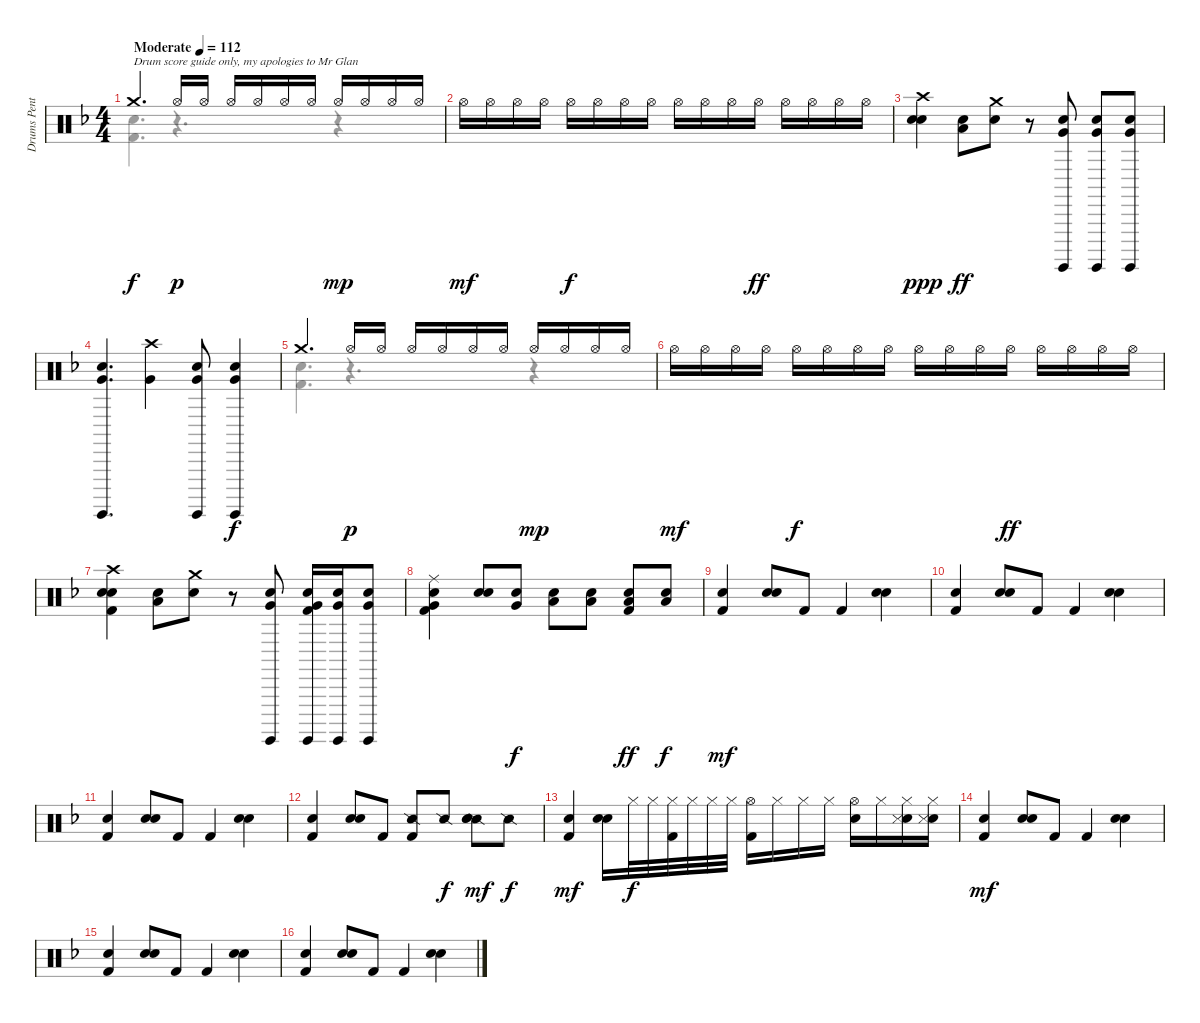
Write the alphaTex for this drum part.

\track ("Drums Pentti Glan" "Drums Pent") {instrument percussion}
\staff {score}
\articulation defaults
\voice
\ts (4 4)
\tempo (112 "Moderate")
\clef neutral
\ks f "Crash medium (hit)".4{d txt "Drum score guide only, my apologies to Mr Glan" dy f} "Hi-Hat (open)".16{dy p} "Hi-Hat (open)".16 "Hi-Hat (open)".16 "Hi-Hat (open)".16 "Hi-Hat (open)".16 "Hi-Hat (open)".16 "Hi-Hat (open)".16{dy mp} "Hi-Hat (open)".16 "Hi-Hat (open)".16 "Hi-Hat (open)".16
|
"Hi-Hat (open)".16{dy mf} "Hi-Hat (open)".16 "Hi-Hat (open)".16 "Hi-Hat (open)".16 "Hi-Hat (open)".16{dy f} "Hi-Hat (open)".16 "Hi-Hat (open)".16 "Hi-Hat (open)".16 "Hi-Hat (open)".16 "Hi-Hat (open)".16 "Hi-Hat (open)".16 "Hi-Hat (open)".16{dy ff} "Hi-Hat (open)".16 "Hi-Hat (open)".16 "Hi-Hat (open)".16 "Hi-Hat (open)".16 |
("Crash high (hit)" "Hand Clap (hit)" "Electric Snare (hit)").4{dy ppp} ("Low Floor Tom (hit)" "Hand Clap (hit)").8{dy ff} ("Crash medium (hit)" "Electric Snare (hit)").8 r.8 ("Hand Clap (hit)" "Very Low Tom (hit)" "Surdo (hit)").8 ("Hand Clap (hit)" "Very Low Tom (hit)" "Surdo (hit)").8 ("Hand Clap (hit)" "Very Low Tom (hit)" "Surdo (hit)").8 |
("Hand Clap (hit)" "Very Low Tom (hit)" "Surdo (hit)").4{d} ("Crash high (hit)" "Very Low Tom (hit)").4 ("Hand Clap (hit)" "Very Low Tom (hit)" "Surdo (hit)").8 ("Hand Clap (hit)" "Very Low Tom (hit)" "Surdo (hit)").4{dy f} |
"Crash medium (hit)".4{d} "Hi-Hat (open)".16{dy p} "Hi-Hat (open)".16 "Hi-Hat (open)".16 "Hi-Hat (open)".16 "Hi-Hat (open)".16 "Hi-Hat (open)".16 "Hi-Hat (open)".16{dy mp} "Hi-Hat (open)".16 "Hi-Hat (open)".16 "Hi-Hat (open)".16 |
"Hi-Hat (open)".16{dy mf} "Hi-Hat (open)".16 "Hi-Hat (open)".16 "Hi-Hat (open)".16 "Hi-Hat (open)".16{dy f} "Hi-Hat (open)".16 "Hi-Hat (open)".16 "Hi-Hat (open)".16 "Hi-Hat (open)".16 "Hi-Hat (open)".16 "Hi-Hat (open)".16 "Hi-Hat (open)".16{dy ff} "Hi-Hat (open)".16 "Hi-Hat (open)".16 "Hi-Hat (open)".16 "Hi-Hat (open)".16 |
("Crash high (hit)" "Hand Clap (hit)" "Electric Snare (hit)" "Kick (hit) 2").4 ("Low Floor Tom (hit)" "Hand Clap (hit)").8 ("Crash medium (hit)" "Electric Snare (hit)").8 r.8 ("Hand Clap (hit)" "Very Low Tom (hit)" "Surdo (hit)").8 ("Hand Clap (hit)" "Very Low Tom (hit)" "Surdo (hit)" "Kick (hit) 2").16 ("Hand Clap (hit)" "Very Low Tom (hit)" "Surdo (hit)").16 ("Hand Clap (hit)" "Very Low Tom (hit)" "Surdo (hit)").8 |
("Ride (middle)" "Hand Clap (hit)" "Very Low Tom (hit)" "Kick (hit) 2").4 ("Hand Clap (hit)" "Electric Snare (hit)").8 ("Hand Clap (hit)" "Very Low Tom (hit)").8{dy f} ("Hand Clap (hit)" "Low Floor Tom (hit)").8 ("Hand Clap (hit)" "Low Floor Tom (hit)").8 ("Hand Clap (hit)" "Low Floor Tom (hit)" "Kick (hit) 2").8{dy ff} ("Hand Clap (hit)" "Low Floor Tom (hit)").8{dy f} |
("Hand Clap (hit)" "Kick (hit) 2").4{dy mf} ("Electric Snare (hit)" "Snare (hit) 2").8 "Kick (hit) 2".8 "Kick (hit) 2".4 ("Electric Snare (hit)" "Snare (hit) 2").4 |
("Hand Clap (hit)" "Kick (hit) 2").4 ("Electric Snare (hit)" "Snare (hit) 2").8 "Kick (hit) 2".8 "Kick (hit) 2".4 ("Electric Snare (hit)" "Snare (hit) 2").4 |
("Hand Clap (hit)" "Kick (hit) 2").4 ("Electric Snare (hit)" "Snare (hit) 2").8 "Kick (hit) 2".8 "Kick (hit) 2".4 ("Electric Snare (hit)" "Snare (hit) 2").4 |
("Hand Clap (hit)" "Kick (hit) 2").4 ("Electric Snare (hit)" "Snare (hit) 2").8 "Kick (hit) 2".8 ("Snare (side stick) 2" "Kick (hit) 2").8 "Snare (side stick) 2".8{dy f} ("Snare (side stick) 2" "Electric Snare (hit)" "Snare (hit) 2").8{dy mf} "Snare (side stick) 2".8{dy f} |
("Hand Clap (hit)" "Kick (hit) 2").4{dy mf} ("Electric Snare (hit)" "Snare (hit) 2").16 "Hi-Hat (closed)".32{dy f} "Hi-Hat (closed)".32 ("Hi-Hat (closed)" "Kick (hit) 2").32 "Hi-Hat (closed)".32 "Hi-Hat (closed)".32 "Hi-Hat (closed)".32 ("Hi-Hat (open)" "Kick (hit) 2").16 "Hi-Hat (closed)".16 "Hi-Hat (closed)".16 "Hi-Hat (closed)".16 ("Hi-Hat (open)" "Electric Snare (hit)").16 "Hi-Hat (closed)".16 ("Hi-Hat (closed)" "Electric Snare (hit)" "Snare (side stick) 3").16 ("Hi-Hat (closed)" "Electric Snare (hit)" "Snare (side stick) 3").16 |
("Hand Clap (hit)" "Kick (hit) 2").4{dy mf} ("Electric Snare (hit)" "Snare (hit) 2").8 "Kick (hit) 2".8 "Kick (hit) 2".4 ("Electric Snare (hit)" "Snare (hit) 2").4 |
("Hand Clap (hit)" "Kick (hit) 2").4 ("Electric Snare (hit)" "Snare (hit) 2").8 "Kick (hit) 2".8 "Kick (hit) 2".4 ("Electric Snare (hit)" "Snare (hit) 2").4 |
("Hand Clap (hit)" "Kick (hit) 2").4 ("Electric Snare (hit)" "Snare (hit) 2").8 "Kick (hit) 2".8 "Kick (hit) 2".4 ("Electric Snare (hit)" "Snare (hit) 2").4
\voice
\clef neutral
\ottava regular
\simile none
\ks f
("Kick (hit) 2" "Snare (hit) 2").4{d dy f} r.4{d} r.4 |
|
|
|
("Kick (hit) 2" "Snare (hit) 2").4{d} r.4{d} r.4 |
|
|
|
|
|
|
|
|
|
|
